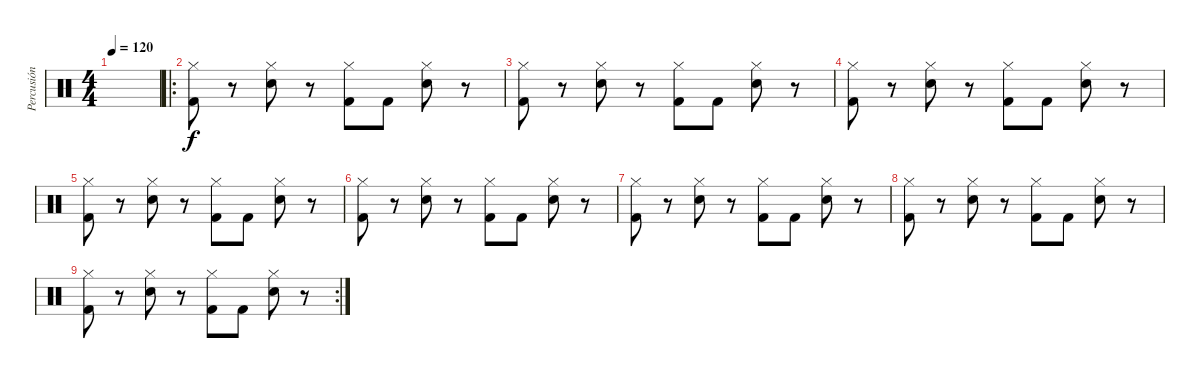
\track ("Percusión" "Percusión") {solo instrument percussion}
\staff {score}
\articulation defaults
\ts (4 4)
\tempo 120
\clef neutral
\ks c
|
\ro
("Kick (hit) 2" "Hi-Hat (closed)").8 r.8 ("Electric Snare (hit)" "Hi-Hat (closed)").8 r.8 ("Kick (hit) 2" "Hi-Hat (closed)").8 "Kick (hit) 2".8 ("Electric Snare (hit)" "Hi-Hat (closed)").8 r.8 |
("Kick (hit) 2" "Hi-Hat (closed)").8 r.8 ("Electric Snare (hit)" "Hi-Hat (closed)").8 r.8 ("Kick (hit) 2" "Hi-Hat (closed)").8 "Kick (hit) 2".8 ("Electric Snare (hit)" "Hi-Hat (closed)").8 r.8 |
("Kick (hit) 2" "Hi-Hat (closed)").8 r.8 ("Electric Snare (hit)" "Hi-Hat (closed)").8 r.8 ("Kick (hit) 2" "Hi-Hat (closed)").8 "Kick (hit) 2".8 ("Electric Snare (hit)" "Hi-Hat (closed)").8 r.8 |
("Kick (hit) 2" "Hi-Hat (closed)").8 r.8 ("Electric Snare (hit)" "Hi-Hat (closed)").8 r.8 ("Kick (hit) 2" "Hi-Hat (closed)").8 "Kick (hit) 2".8 ("Electric Snare (hit)" "Hi-Hat (closed)").8 r.8 |
("Kick (hit) 2" "Hi-Hat (closed)").8 r.8 ("Electric Snare (hit)" "Hi-Hat (closed)").8 r.8 ("Kick (hit) 2" "Hi-Hat (closed)").8 "Kick (hit) 2".8 ("Electric Snare (hit)" "Hi-Hat (closed)").8 r.8 |
("Kick (hit) 2" "Hi-Hat (closed)").8 r.8 ("Electric Snare (hit)" "Hi-Hat (closed)").8 r.8 ("Kick (hit) 2" "Hi-Hat (closed)").8 "Kick (hit) 2".8 ("Electric Snare (hit)" "Hi-Hat (closed)").8 r.8 |
("Kick (hit) 2" "Hi-Hat (closed)").8 r.8 ("Electric Snare (hit)" "Hi-Hat (closed)").8 r.8 ("Kick (hit) 2" "Hi-Hat (closed)").8 "Kick (hit) 2".8 ("Electric Snare (hit)" "Hi-Hat (closed)").8 r.8 |
\rc 2
("Kick (hit) 2" "Hi-Hat (closed)").8 r.8 ("Electric Snare (hit)" "Hi-Hat (closed)").8 r.8 ("Kick (hit) 2" "Hi-Hat (closed)").8 "Kick (hit) 2".8 ("Electric Snare (hit)" "Hi-Hat (closed)").8 r.8
